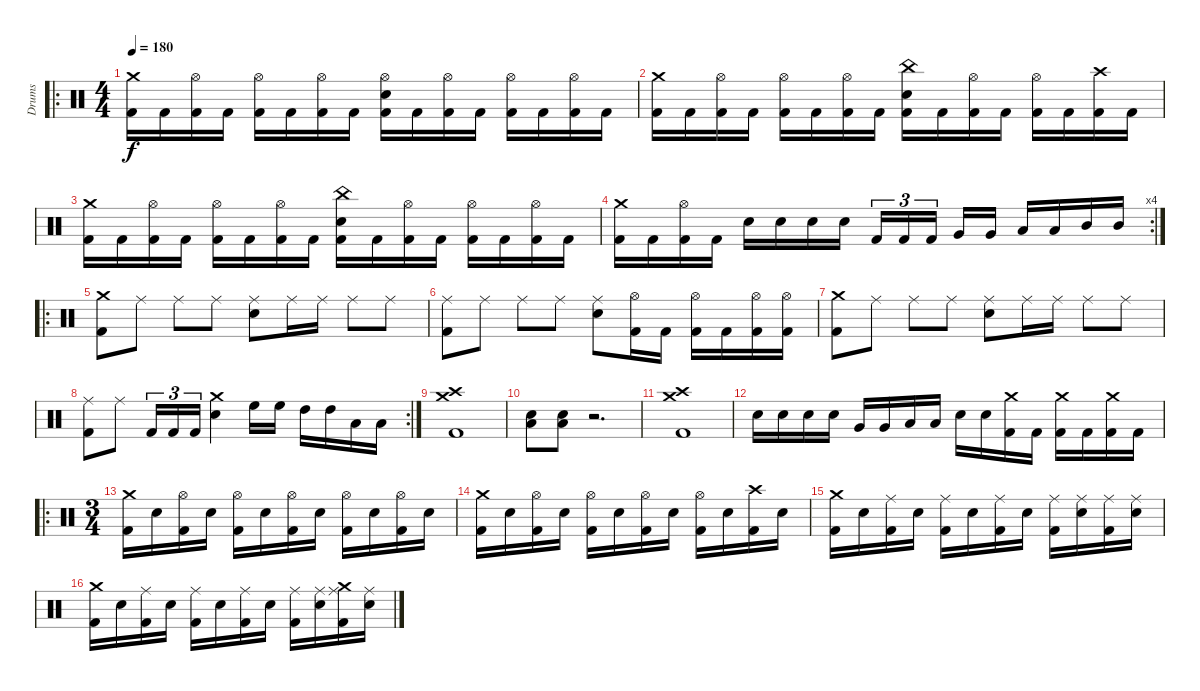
\track ("Drums" "Drums") {instrument percussion}
\staff {score}
\articulation defaults
\ro
\ts (4 4)
\tempo 180
\clef neutral
\ks c
("Kick (hit) 2" "Crash medium (hit)").16{dy f} "Kick (hit) 2".16 ("Kick (hit) 2" "Hi-Hat (open)").16 "Kick (hit) 2".16 ("Kick (hit) 2" "Hi-Hat (open)").16 "Kick (hit) 2".16 ("Kick (hit) 2" "Hi-Hat (open)").16 "Kick (hit) 2".16 ("Kick (hit) 2" "Electric Snare (hit)" "Hi-Hat (open)").16 "Kick (hit) 2".16 ("Kick (hit) 2" "Hi-Hat (open)").16 "Kick (hit) 2".16 ("Kick (hit) 2" "Hi-Hat (open)").16 "Kick (hit) 2".16 ("Kick (hit) 2" "Hi-Hat (open)").16 "Kick (hit) 2".16 |
("Kick (hit) 2" "Crash medium (hit)").16 "Kick (hit) 2".16 ("Kick (hit) 2" "Hi-Hat (open)").16 "Kick (hit) 2".16 ("Kick (hit) 2" "Hi-Hat (open)").16 "Kick (hit) 2".16 ("Kick (hit) 2" "Hi-Hat (open)").16 "Kick (hit) 2".16 ("Kick (hit) 2" "Electric Snare (hit)" "China (hit)").16 "Kick (hit) 2".16 ("Kick (hit) 2" "Hi-Hat (open)").16 "Kick (hit) 2".16 ("Kick (hit) 2" "Hi-Hat (open)").16 "Kick (hit) 2".16 ("Kick (hit) 2" "Crash high (hit)").16 "Kick (hit) 2".16 |
("Kick (hit) 2" "Crash medium (hit)").16 "Kick (hit) 2".16 ("Kick (hit) 2" "Hi-Hat (open)").16 "Kick (hit) 2".16 ("Kick (hit) 2" "Hi-Hat (open)").16 "Kick (hit) 2".16 ("Kick (hit) 2" "Hi-Hat (open)").16 "Kick (hit) 2".16 ("Kick (hit) 2" "Electric Snare (hit)" "China (hit)").16 "Kick (hit) 2".16 ("Kick (hit) 2" "Hi-Hat (open)").16 "Kick (hit) 2".16 ("Kick (hit) 2" "Hi-Hat (open)").16 "Kick (hit) 2".16 ("Kick (hit) 2" "Hi-Hat (open)").16 "Kick (hit) 2".16 |
\rc 4
("Kick (hit) 2" "Crash medium (hit)").16 "Kick (hit) 2".16 ("Kick (hit) 2" "Hi-Hat (open)").16 "Kick (hit) 2".16 "Electric Snare (hit)".16 "Electric Snare (hit)".16 "Electric Snare (hit)".16 "Electric Snare (hit)".16 "Kick (hit) 2".16{tu (3 2)} "Kick (hit) 2".16{tu (3 2)} "Kick (hit) 2".16{tu (3 2)} "Very Low Tom (hit)".16 "Very Low Tom (hit)".16 "Low Tom (hit)".16 "Low Tom (hit)".16 "Mid Tom (hit)".16 "Mid Tom (hit)".16 |
\ro
("Kick (hit) 2" "Crash medium (hit)").8 "Ride (middle)".8 "Ride (middle)".8 "Ride (middle)".8 ("Electric Snare (hit)" "Ride (middle)").8 "Ride (middle)".16 "Ride (middle)".16 "Ride (middle)".8 "Ride (middle)".8 |
("Kick (hit) 2" "Ride (middle)").8 "Ride (middle)".8 "Ride (middle)".8 "Ride (middle)".8 ("Electric Snare (hit)" "Ride (middle)").8 ("Kick (hit) 2" "Hi-Hat (open)").16 "Kick (hit) 2".16 ("Kick (hit) 2" "Hi-Hat (open)").16 "Kick (hit) 2".16 ("Kick (hit) 2" "Hi-Hat (open)").16 ("Kick (hit) 2" "Hi-Hat (open)").16 |
("Kick (hit) 2" "Crash medium (hit)").8 "Ride (middle)".8 "Ride (middle)".8 "Ride (middle)".8 ("Electric Snare (hit)" "Ride (middle)").8 "Ride (middle)".16 "Ride (middle)".16 "Ride (middle)".8 "Ride (middle)".8 |
\rc 2
("Kick (hit) 2" "Ride (middle)").8 "Ride (middle)".8 "Kick (hit) 2".16{tu (3 2)} "Kick (hit) 2".16{tu (3 2)} "Kick (hit) 2".16{tu (3 2)} ("Electric Snare (hit)" "Crash medium (hit)").4 "High Floor Tom (hit)".16 "High Floor Tom (hit)".16 "High Tom (hit)".16 "High Tom (hit)".16 "Low Tom (hit)".16 "Low Tom (hit)".16 |
("Kick (hit) 2" "Crash high (hit)" "Crash medium (hit)").1 |
("Electric Snare (hit)" "Low Tom (hit)").8 ("Electric Snare (hit)" "Low Tom (hit)").8 r.2{d} |
("Kick (hit) 2" "Crash high (hit)" "Crash medium (hit)").1 |
"Electric Snare (hit)".16 "Electric Snare (hit)".16 "Electric Snare (hit)".16 "Electric Snare (hit)".16 "Very Low Tom (hit)".16 "Very Low Tom (hit)".16 "Low Tom (hit)".16 "Low Tom (hit)".16 "Electric Snare (hit)".16 "Electric Snare (hit)".16 ("Kick (hit) 2" "Crash medium (hit)").16 "Kick (hit) 2".16 ("Kick (hit) 2" "Crash medium (hit)").16 "Kick (hit) 2".16 ("Kick (hit) 2" "Crash medium (hit)").16 "Kick (hit) 2".16 |
\ro
\ts (3 4)
("Kick (hit) 2" "Crash medium (hit)").16 "Electric Snare (hit)".16 ("Kick (hit) 2" "Hi-Hat (open)").16 "Electric Snare (hit)".16 ("Kick (hit) 2" "Hi-Hat (open)").16 "Electric Snare (hit)".16 ("Kick (hit) 2" "Hi-Hat (open)").16 "Electric Snare (hit)".16 ("Kick (hit) 2" "Hi-Hat (open)").16 "Electric Snare (hit)".16 ("Kick (hit) 2" "Hi-Hat (open)").16 "Electric Snare (hit)".16 |
("Kick (hit) 2" "Crash medium (hit)").16 "Electric Snare (hit)".16 ("Kick (hit) 2" "Hi-Hat (open)").16 "Electric Snare (hit)".16 ("Kick (hit) 2" "Hi-Hat (open)").16 "Electric Snare (hit)".16 ("Kick (hit) 2" "Hi-Hat (open)").16 "Electric Snare (hit)".16 ("Kick (hit) 2" "Hi-Hat (open)").16 "Electric Snare (hit)".16 ("Kick (hit) 2" "Crash high (hit)").16 "Electric Snare (hit)".16 |
("Kick (hit) 2" "Crash medium (hit)").16 "Electric Snare (hit)".16 ("Kick (hit) 2" "Ride (middle)").16 "Electric Snare (hit)".16 ("Kick (hit) 2" "Ride (middle)").16 "Electric Snare (hit)".16 ("Kick (hit) 2" "Ride (middle)").16 "Electric Snare (hit)".16 ("Kick (hit) 2" "Ride (middle)").16 ("Electric Snare (hit)" "Ride (middle)").16 ("Kick (hit) 2" "Ride (middle)").16 ("Electric Snare (hit)" "Ride (middle)").16 |
("Kick (hit) 2" "Crash medium (hit)").16 "Electric Snare (hit)".16 ("Kick (hit) 2" "Ride (middle)").16 "Electric Snare (hit)".16 ("Kick (hit) 2" "Ride (middle)").16 "Electric Snare (hit)".16 ("Kick (hit) 2" "Ride (middle)").16 "Electric Snare (hit)".16 ("Kick (hit) 2" "Ride (middle)").16 ("Electric Snare (hit)" "Ride (middle)").16 ("Kick (hit) 2" "Ride (middle)" "Crash medium (hit)").16 ("Electric Snare (hit)" "Ride (middle)").16
